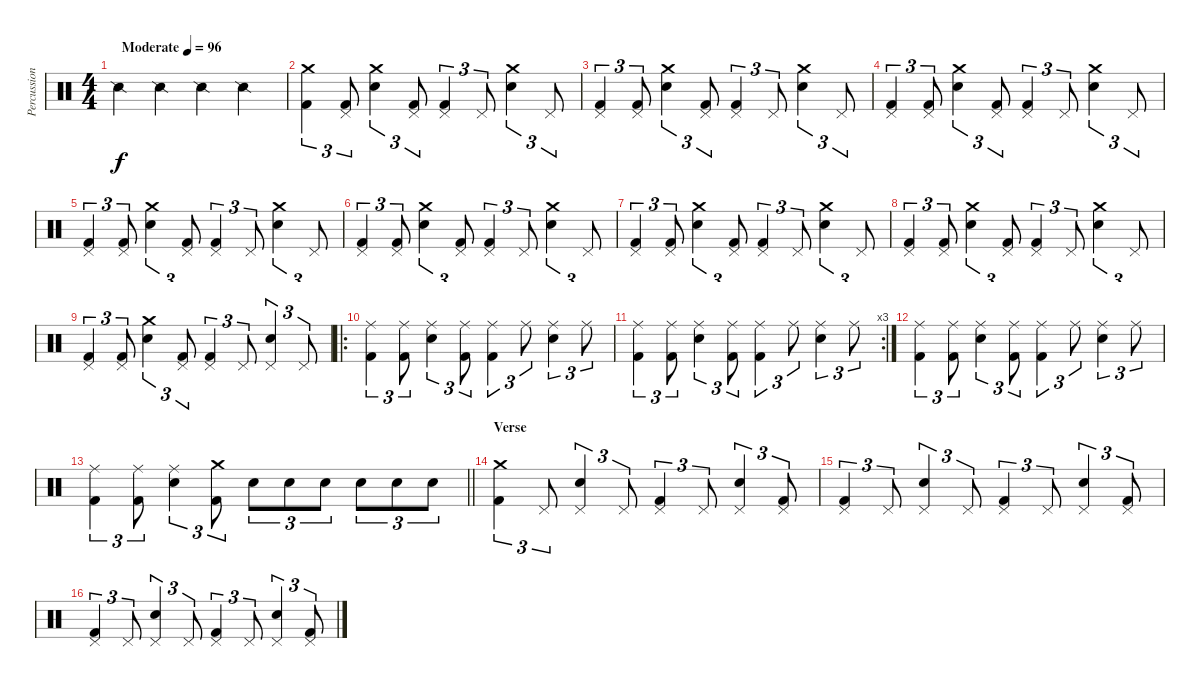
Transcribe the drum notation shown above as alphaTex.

\track ("Percussioni" "Percussion") {instrument percussion}
\staff {score}
\articulation defaults
\ts (4 4)
\tempo (96 "Moderate")
\clef neutral
\ks c "Snare (side stick) 2".4{dy f} "Snare (side stick) 2".4 "Snare (side stick) 2".4 "Snare (side stick) 2".4
|
("Kick (hit) 2" "Crash medium (hit)").4{tu (3 2)} ("Kick (hit) 2" "Pedal Hi-Hat (hit)").8{tu (3 2)} ("Electric Snare (hit)" "Crash medium (hit)").4{tu (3 2)} ("Kick (hit) 2" "Pedal Hi-Hat (hit)").8{tu (3 2)} ("Kick (hit) 2" "Pedal Hi-Hat (hit)").4{tu (3 2)} "Pedal Hi-Hat (hit)".8{tu (3 2)} ("Electric Snare (hit)" "Crash medium (hit)").4{tu (3 2)} "Pedal Hi-Hat (hit)".8{tu (3 2)} |
("Kick (hit) 2" "Pedal Hi-Hat (hit)").4{tu (3 2)} ("Kick (hit) 2" "Pedal Hi-Hat (hit)").8{tu (3 2)} ("Electric Snare (hit)" "Crash medium (hit)").4{tu (3 2)} ("Kick (hit) 2" "Pedal Hi-Hat (hit)").8{tu (3 2)} ("Kick (hit) 2" "Pedal Hi-Hat (hit)").4{tu (3 2)} "Pedal Hi-Hat (hit)".8{tu (3 2)} ("Electric Snare (hit)" "Crash medium (hit)").4{tu (3 2)} "Pedal Hi-Hat (hit)".8{tu (3 2)} |
("Kick (hit) 2" "Pedal Hi-Hat (hit)").4{tu (3 2)} ("Kick (hit) 2" "Pedal Hi-Hat (hit)").8{tu (3 2)} ("Electric Snare (hit)" "Crash medium (hit)").4{tu (3 2)} ("Kick (hit) 2" "Pedal Hi-Hat (hit)").8{tu (3 2)} ("Kick (hit) 2" "Pedal Hi-Hat (hit)").4{tu (3 2)} "Pedal Hi-Hat (hit)".8{tu (3 2)} ("Electric Snare (hit)" "Crash medium (hit)").4{tu (3 2)} "Pedal Hi-Hat (hit)".8{tu (3 2)} |
("Kick (hit) 2" "Pedal Hi-Hat (hit)").4{tu (3 2)} ("Kick (hit) 2" "Pedal Hi-Hat (hit)").8{tu (3 2)} ("Electric Snare (hit)" "Crash medium (hit)").4{tu (3 2)} ("Kick (hit) 2" "Pedal Hi-Hat (hit)").8{tu (3 2)} ("Kick (hit) 2" "Pedal Hi-Hat (hit)").4{tu (3 2)} "Pedal Hi-Hat (hit)".8{tu (3 2)} ("Electric Snare (hit)" "Crash medium (hit)").4{tu (3 2)} "Pedal Hi-Hat (hit)".8{tu (3 2)} |
("Kick (hit) 2" "Pedal Hi-Hat (hit)").4{tu (3 2)} ("Kick (hit) 2" "Pedal Hi-Hat (hit)").8{tu (3 2)} ("Electric Snare (hit)" "Crash medium (hit)").4{tu (3 2)} ("Kick (hit) 2" "Pedal Hi-Hat (hit)").8{tu (3 2)} ("Kick (hit) 2" "Pedal Hi-Hat (hit)").4{tu (3 2)} "Pedal Hi-Hat (hit)".8{tu (3 2)} ("Electric Snare (hit)" "Crash medium (hit)").4{tu (3 2)} "Pedal Hi-Hat (hit)".8{tu (3 2)} |
("Kick (hit) 2" "Pedal Hi-Hat (hit)").4{tu (3 2)} ("Kick (hit) 2" "Pedal Hi-Hat (hit)").8{tu (3 2)} ("Electric Snare (hit)" "Crash medium (hit)").4{tu (3 2)} ("Kick (hit) 2" "Pedal Hi-Hat (hit)").8{tu (3 2)} ("Kick (hit) 2" "Pedal Hi-Hat (hit)").4{tu (3 2)} "Pedal Hi-Hat (hit)".8{tu (3 2)} ("Electric Snare (hit)" "Crash medium (hit)").4{tu (3 2)} "Pedal Hi-Hat (hit)".8{tu (3 2)} |
("Kick (hit) 2" "Pedal Hi-Hat (hit)").4{tu (3 2)} ("Kick (hit) 2" "Pedal Hi-Hat (hit)").8{tu (3 2)} ("Electric Snare (hit)" "Crash medium (hit)").4{tu (3 2)} ("Kick (hit) 2" "Pedal Hi-Hat (hit)").8{tu (3 2)} ("Kick (hit) 2" "Pedal Hi-Hat (hit)").4{tu (3 2)} "Pedal Hi-Hat (hit)".8{tu (3 2)} ("Electric Snare (hit)" "Crash medium (hit)").4{tu (3 2)} "Pedal Hi-Hat (hit)".8{tu (3 2)} |
("Kick (hit) 2" "Pedal Hi-Hat (hit)").4{tu (3 2)} ("Kick (hit) 2" "Pedal Hi-Hat (hit)").8{tu (3 2)} ("Electric Snare (hit)" "Crash medium (hit)").4{tu (3 2)} ("Kick (hit) 2" "Pedal Hi-Hat (hit)").8{tu (3 2)} ("Kick (hit) 2" "Pedal Hi-Hat (hit)").4{tu (3 2)} "Pedal Hi-Hat (hit)".8{tu (3 2)} ("Electric Snare (hit)" "Pedal Hi-Hat (hit)").4{tu (3 2)} "Pedal Hi-Hat (hit)".8{tu (3 2)} |
\ro
("Kick (hit) 2" "Ride (middle)").4{tu (3 2)} ("Kick (hit) 2" "Ride (middle)").8{tu (3 2)} ("Electric Snare (hit)" "Ride (middle)").4{tu (3 2)} ("Kick (hit) 2" "Ride (middle)").8{tu (3 2)} ("Kick (hit) 2" "Ride (middle)").4{tu (3 2)} "Ride (middle)".8{tu (3 2)} ("Electric Snare (hit)" "Ride (middle)").4{tu (3 2)} "Ride (middle)".8{tu (3 2)} |
\rc 3
("Kick (hit) 2" "Ride (middle)").4{tu (3 2)} ("Kick (hit) 2" "Ride (middle)").8{tu (3 2)} ("Electric Snare (hit)" "Ride (middle)").4{tu (3 2)} ("Kick (hit) 2" "Ride (middle)").8{tu (3 2)} ("Kick (hit) 2" "Ride (middle)").4{tu (3 2)} "Ride (middle)".8{tu (3 2)} ("Electric Snare (hit)" "Ride (middle)").4{tu (3 2)} "Ride (middle)".8{tu (3 2)} |
("Kick (hit) 2" "Ride (middle)").4{tu (3 2)} ("Kick (hit) 2" "Ride (middle)").8{tu (3 2)} ("Electric Snare (hit)" "Ride (middle)").4{tu (3 2)} ("Kick (hit) 2" "Ride (middle)").8{tu (3 2)} ("Kick (hit) 2" "Ride (middle)").4{tu (3 2)} "Ride (middle)".8{tu (3 2)} ("Electric Snare (hit)" "Ride (middle)").4{tu (3 2)} "Ride (middle)".8{tu (3 2)} |
\barLineRight lightlight
("Kick (hit) 2" "Ride (middle)").4{tu (3 2)} ("Kick (hit) 2" "Ride (middle)").8{tu (3 2)} ("Electric Snare (hit)" "Ride (middle)").4{tu (3 2)} ("Kick (hit) 2" "Crash medium (hit)").8{tu (3 2)} "Electric Snare (hit)".8{tu (3 2)} "Electric Snare (hit)".8{tu (3 2)} "Electric Snare (hit)".8{tu (3 2)} "Electric Snare (hit)".8{tu (3 2)} "Electric Snare (hit)".8{tu (3 2)} "Electric Snare (hit)".8{tu (3 2)} |
\section ("" "Verse")
("Kick (hit) 2" "Crash medium (hit)").4{tu (3 2)} "Pedal Hi-Hat (hit)".8{tu (3 2)} ("Electric Snare (hit)" "Pedal Hi-Hat (hit)").4{tu (3 2)} "Pedal Hi-Hat (hit)".8{tu (3 2)} ("Kick (hit) 2" "Pedal Hi-Hat (hit)").4{tu (3 2)} "Pedal Hi-Hat (hit)".8{tu (3 2)} ("Electric Snare (hit)" "Pedal Hi-Hat (hit)").4{tu (3 2)} ("Kick (hit) 2" "Pedal Hi-Hat (hit)").8{tu (3 2)} |
("Kick (hit) 2" "Pedal Hi-Hat (hit)").4{tu (3 2)} "Pedal Hi-Hat (hit)".8{tu (3 2)} ("Electric Snare (hit)" "Pedal Hi-Hat (hit)").4{tu (3 2)} "Pedal Hi-Hat (hit)".8{tu (3 2)} ("Kick (hit) 2" "Pedal Hi-Hat (hit)").4{tu (3 2)} "Pedal Hi-Hat (hit)".8{tu (3 2)} ("Electric Snare (hit)" "Pedal Hi-Hat (hit)").4{tu (3 2)} ("Kick (hit) 2" "Pedal Hi-Hat (hit)").8{tu (3 2)} |
("Kick (hit) 2" "Pedal Hi-Hat (hit)").4{tu (3 2)} "Pedal Hi-Hat (hit)".8{tu (3 2)} ("Electric Snare (hit)" "Pedal Hi-Hat (hit)").4{tu (3 2)} "Pedal Hi-Hat (hit)".8{tu (3 2)} ("Kick (hit) 2" "Pedal Hi-Hat (hit)").4{tu (3 2)} "Pedal Hi-Hat (hit)".8{tu (3 2)} ("Electric Snare (hit)" "Pedal Hi-Hat (hit)").4{tu (3 2)} ("Kick (hit) 2" "Pedal Hi-Hat (hit)").8{tu (3 2)}
